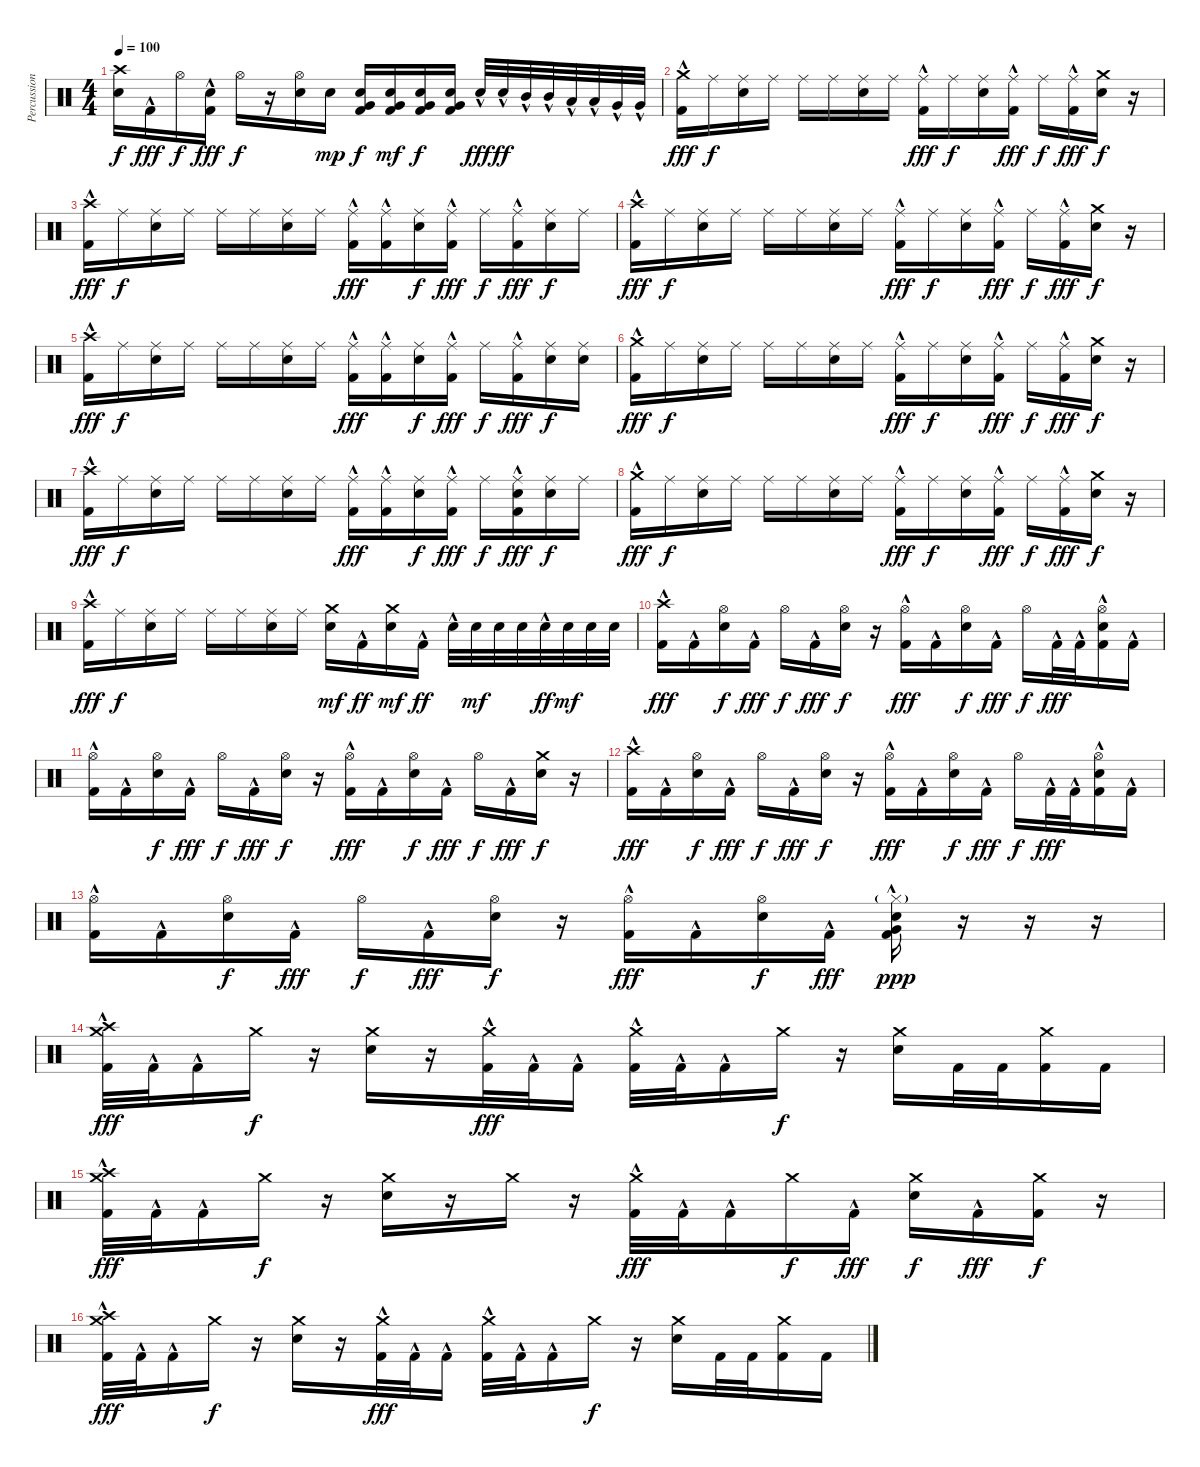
\track ("Percussion" "Percussion") {instrument percussion}
\staff {score}
\articulation defaults
\ts (4 4)
\tempo 100
\clef neutral
\ks c
("Electric Snare (hit)" "Crash high (hit)").16{dy f} "Kick (hit) 2"{hac}.16{dy fff} "Hi-Hat (open)".16{dy f} ("Kick (hit) 2"{hac} "Electric Snare (hit)").16{dy fff} "Hi-Hat (open)".16{dy f} r.16 ("Electric Snare (hit)" "Hi-Hat (open)").16 "Electric Snare (hit)".16{dy mp} ("Kick (hit) 2" "Electric Snare (hit)" "Very Low Tom (hit)").16{dy f} ("Kick (hit) 2" "Electric Snare (hit)" "Very Low Tom (hit)").16{dy mf} ("Kick (hit) 2" "Electric Snare (hit)" "Very Low Tom (hit)").16{dy f} ("Kick (hit) 2" "Electric Snare (hit)" "Very Low Tom (hit)").16 "Electric Snare (hit)"{hac}.32{dy fff} "Electric Snare (hit)"{hac}.32{dy ff} "Mid Tom (hit)"{hac}.32 "Mid Tom (hit)"{hac}.32 "Low Tom (hit)"{hac}.32 "Low Tom (hit)"{hac}.32 "Very Low Tom (hit)"{hac}.32 "Very Low Tom (hit)"{hac}.32 |
("Kick (hit) 2"{hac} "Crash medium (hit)").16{dy fff} "Ride (middle)".16{dy f} ("Electric Snare (hit)" "Ride (middle)").16 "Ride (middle)".16 "Ride (middle)".16 "Ride (middle)".16 ("Electric Snare (hit)" "Ride (middle)").16 "Ride (middle)".16 ("Kick (hit) 2"{hac} "Ride (middle)").16{dy fff} "Ride (middle)".16{dy f} ("Electric Snare (hit)" "Ride (middle)").16 ("Kick (hit) 2"{hac} "Ride (middle)").16{dy fff} "Ride (middle)".16{dy f} ("Kick (hit) 2"{hac} "Ride (middle)").16{dy fff} ("Electric Snare (hit)" "Crash medium (hit)").16{dy f} r.16 |
("Kick (hit) 2"{hac} "Crash high (hit)").16{dy fff} "Ride (middle)".16{dy f} ("Electric Snare (hit)" "Ride (middle)").16 "Ride (middle)".16 "Ride (middle)".16 "Ride (middle)".16 ("Electric Snare (hit)" "Ride (middle)").16 "Ride (middle)".16 ("Kick (hit) 2"{hac} "Ride (middle)").16{dy fff} ("Kick (hit) 2"{hac} "Ride (middle)").16 ("Electric Snare (hit)" "Ride (middle)").16{dy f} ("Kick (hit) 2"{hac} "Ride (middle)").16{dy fff} "Ride (middle)".16{dy f} ("Kick (hit) 2"{hac} "Ride (middle)").16{dy fff} ("Electric Snare (hit)" "Ride (middle)").16{dy f} "Ride (middle)".16 |
("Kick (hit) 2"{hac} "Crash high (hit)").16{dy fff} "Ride (middle)".16{dy f} ("Electric Snare (hit)" "Ride (middle)").16 "Ride (middle)".16 "Ride (middle)".16 "Ride (middle)".16 ("Electric Snare (hit)" "Ride (middle)").16 "Ride (middle)".16 ("Kick (hit) 2"{hac} "Ride (middle)").16{dy fff} "Ride (middle)".16{dy f} ("Electric Snare (hit)" "Ride (middle)").16 ("Kick (hit) 2"{hac} "Ride (middle)").16{dy fff} "Ride (middle)".16{dy f} ("Kick (hit) 2"{hac} "Ride (middle)").16{dy fff} ("Electric Snare (hit)" "Crash medium (hit)").16{dy f} r.16 |
("Kick (hit) 2"{hac} "Crash high (hit)").16{dy fff} "Ride (middle)".16{dy f} ("Electric Snare (hit)" "Ride (middle)").16 "Ride (middle)".16 "Ride (middle)".16 "Ride (middle)".16 ("Electric Snare (hit)" "Ride (middle)").16 "Ride (middle)".16 ("Kick (hit) 2"{hac} "Ride (middle)").16{dy fff} ("Kick (hit) 2"{hac} "Ride (middle)").16 ("Electric Snare (hit)" "Ride (middle)").16{dy f} ("Kick (hit) 2"{hac} "Ride (middle)").16{dy fff} "Ride (middle)".16{dy f} ("Kick (hit) 2"{hac} "Ride (middle)").16{dy fff} ("Electric Snare (hit)" "Ride (middle)").16{dy f} ("Electric Snare (hit)" "Ride (middle)").16 |
("Kick (hit) 2"{hac} "Crash medium (hit)").16{dy fff} "Ride (middle)".16{dy f} ("Electric Snare (hit)" "Ride (middle)").16 "Ride (middle)".16 "Ride (middle)".16 "Ride (middle)".16 ("Electric Snare (hit)" "Ride (middle)").16 "Ride (middle)".16 ("Kick (hit) 2"{hac} "Ride (middle)").16{dy fff} "Ride (middle)".16{dy f} ("Electric Snare (hit)" "Ride (middle)").16 ("Kick (hit) 2"{hac} "Ride (middle)").16{dy fff} "Ride (middle)".16{dy f} ("Kick (hit) 2"{hac} "Ride (middle)").16{dy fff} ("Electric Snare (hit)" "Crash medium (hit)").16{dy f} r.16 |
("Kick (hit) 2"{hac} "Crash high (hit)").16{dy fff} "Ride (middle)".16{dy f} ("Electric Snare (hit)" "Ride (middle)").16 "Ride (middle)".16 "Ride (middle)".16 "Ride (middle)".16 ("Electric Snare (hit)" "Ride (middle)").16 "Ride (middle)".16 ("Kick (hit) 2"{hac} "Ride (middle)").16{dy fff} ("Kick (hit) 2"{hac} "Ride (middle)").16 ("Electric Snare (hit)" "Ride (middle)").16{dy f} ("Kick (hit) 2"{hac} "Ride (middle)").16{dy fff} "Ride (middle)".16{dy f} ("Electric Snare (hit)" "Kick (hit) 2"{hac} "Ride (middle)").16{dy fff} ("Electric Snare (hit)" "Ride (middle)").16{dy f} "Ride (middle)".16 |
("Kick (hit) 2"{hac} "Crash medium (hit)").16{dy fff} "Ride (middle)".16{dy f} ("Electric Snare (hit)" "Ride (middle)").16 "Ride (middle)".16 "Ride (middle)".16 "Ride (middle)".16 ("Electric Snare (hit)" "Ride (middle)").16 "Ride (middle)".16 ("Kick (hit) 2"{hac} "Ride (middle)").16{dy fff} "Ride (middle)".16{dy f} ("Electric Snare (hit)" "Ride (middle)").16 ("Kick (hit) 2"{hac} "Ride (middle)").16{dy fff} "Ride (middle)".16{dy f} ("Kick (hit) 2"{hac} "Ride (middle)").16{dy fff} ("Electric Snare (hit)" "Crash medium (hit)").16{dy f} r.16 |
("Kick (hit) 2"{hac} "Crash high (hit)").16{dy fff} "Ride (middle)".16{dy f} ("Electric Snare (hit)" "Ride (middle)").16 "Ride (middle)".16 "Ride (middle)".16 "Ride (middle)".16 ("Electric Snare (hit)" "Ride (middle)").16 "Ride (middle)".16 ("Electric Snare (hit)" "Crash medium (hit)").16{dy mf} "Kick (hit) 2"{hac}.16{dy ff} ("Electric Snare (hit)" "Crash medium (hit)").16{dy mf} "Kick (hit) 2"{hac}.16{dy ff} "Electric Snare (hit)"{hac}.32 "Electric Snare (hit)".32{dy mf} "Electric Snare (hit)".32 "Electric Snare (hit)".32 "Electric Snare (hit)"{hac}.32{dy ff} "Electric Snare (hit)".32{dy mf} "Electric Snare (hit)".32 "Electric Snare (hit)".32 |
("Kick (hit) 2"{hac} "Crash high (hit)").16{dy fff} "Kick (hit) 2"{hac}.16 ("Electric Snare (hit)" "Hi-Hat (open)").16{dy f} "Kick (hit) 2"{hac}.16{dy fff} "Hi-Hat (open)".16{dy f} "Kick (hit) 2"{hac}.16{dy fff} ("Electric Snare (hit)" "Hi-Hat (open)").16{dy f} r.16 ("Kick (hit) 2"{hac} "Hi-Hat (open)").16{dy fff} "Kick (hit) 2"{hac}.16 ("Electric Snare (hit)" "Hi-Hat (open)").16{dy f} "Kick (hit) 2"{hac}.16{dy fff} "Hi-Hat (open)".16{dy f} "Kick (hit) 2"{hac}.32{dy fff} "Kick (hit) 2"{hac}.32 ("Electric Snare (hit)" "Kick (hit) 2"{hac} "Hi-Hat (open)").16 "Kick (hit) 2"{hac}.16 |
("Kick (hit) 2"{hac} "Hi-Hat (open)").16 "Kick (hit) 2"{hac}.16 ("Electric Snare (hit)" "Hi-Hat (open)").16{dy f} "Kick (hit) 2"{hac}.16{dy fff} "Hi-Hat (open)".16{dy f} "Kick (hit) 2"{hac}.16{dy fff} ("Electric Snare (hit)" "Hi-Hat (open)").16{dy f} r.16 ("Kick (hit) 2"{hac} "Hi-Hat (open)").16{dy fff} "Kick (hit) 2"{hac}.16 ("Electric Snare (hit)" "Hi-Hat (open)").16{dy f} "Kick (hit) 2"{hac}.16{dy fff} "Hi-Hat (open)".16{dy f} "Kick (hit) 2"{hac}.16{dy fff} ("Electric Snare (hit)" "Crash medium (hit)").16{dy f} r.16 |
("Kick (hit) 2"{hac} "Crash high (hit)").16{dy fff} "Kick (hit) 2"{hac}.16 ("Electric Snare (hit)" "Hi-Hat (open)").16{dy f} "Kick (hit) 2"{hac}.16{dy fff} "Hi-Hat (open)".16{dy f} "Kick (hit) 2"{hac}.16{dy fff} ("Electric Snare (hit)" "Hi-Hat (open)").16{dy f} r.16 ("Kick (hit) 2"{hac} "Hi-Hat (open)").16{dy fff} "Kick (hit) 2"{hac}.16 ("Electric Snare (hit)" "Hi-Hat (open)").16{dy f} "Kick (hit) 2"{hac}.16{dy fff} "Hi-Hat (open)".16{dy f} "Kick (hit) 2"{hac}.32{dy fff} "Kick (hit) 2"{hac}.32 ("Electric Snare (hit)" "Kick (hit) 2"{hac} "Hi-Hat (open)").16 "Kick (hit) 2"{hac}.16 |
("Kick (hit) 2"{hac} "Hi-Hat (open)").16 "Kick (hit) 2"{hac}.16 ("Electric Snare (hit)" "Hi-Hat (open)").16{dy f} "Kick (hit) 2"{hac}.16{dy fff} "Hi-Hat (open)".16{dy f} "Kick (hit) 2"{hac}.16{dy fff} ("Electric Snare (hit)" "Hi-Hat (open)").16{dy f} r.16 ("Kick (hit) 2"{hac} "Hi-Hat (open)").16{dy fff} "Kick (hit) 2"{hac}.16 ("Electric Snare (hit)" "Hi-Hat (open)").16{dy f} "Kick (hit) 2"{hac}.16{dy fff} ("Kick (hit) 2"{hac} "Electric Snare (hit)" "Very Low Tom (hit)" "Hi-Hat (closed)"{g}).16{dy ppp} r.16 r.16 r.16 |
("Kick (hit) 2"{hac} "Crash medium (hit)" "Crash high (hit)").32{dy fff} "Kick (hit) 2"{hac}.32 "Kick (hit) 2"{hac}.16 "Crash medium (hit)".16{dy f} r.16 ("Electric Snare (hit)" "Crash medium (hit)").16 r.16 ("Kick (hit) 2"{hac} "Crash medium (hit)").32{dy fff} "Kick (hit) 2"{hac}.32 "Kick (hit) 2"{hac}.16 ("Kick (hit) 2"{hac} "Crash medium (hit)").32 "Kick (hit) 2"{hac}.32 "Kick (hit) 2"{hac}.16 "Crash medium (hit)".16{dy f} r.16 ("Electric Snare (hit)" "Crash medium (hit)").16 "Kick (hit) 2".32 "Kick (hit) 2".32 ("Kick (hit) 2" "Crash medium (hit)").16 "Kick (hit) 2".16 |
("Kick (hit) 2"{hac} "Crash medium (hit)" "Crash high (hit)").32{dy fff} "Kick (hit) 2"{hac}.32 "Kick (hit) 2"{hac}.16 "Crash medium (hit)".16{dy f} r.16 ("Electric Snare (hit)" "Crash medium (hit)").16 r.16 "Crash medium (hit)".16 r.16 ("Kick (hit) 2"{hac} "Crash medium (hit)").32{dy fff} "Kick (hit) 2"{hac}.32 "Kick (hit) 2"{hac}.16 "Crash medium (hit)".16{dy f} "Kick (hit) 2"{hac}.16{dy fff} ("Electric Snare (hit)" "Crash medium (hit)").16{dy f} "Kick (hit) 2"{hac}.16{dy fff} ("Kick (hit) 2" "Crash medium (hit)").16{dy f} r.16 |
("Kick (hit) 2"{hac} "Crash medium (hit)" "Crash high (hit)").32{dy fff} "Kick (hit) 2"{hac}.32 "Kick (hit) 2"{hac}.16 "Crash medium (hit)".16{dy f} r.16 ("Electric Snare (hit)" "Crash medium (hit)").16 r.16 ("Kick (hit) 2"{hac} "Crash medium (hit)").32{dy fff} "Kick (hit) 2"{hac}.32 "Kick (hit) 2"{hac}.16 ("Kick (hit) 2"{hac} "Crash medium (hit)").32 "Kick (hit) 2"{hac}.32 "Kick (hit) 2"{hac}.16 "Crash medium (hit)".16{dy f} r.16 ("Electric Snare (hit)" "Crash medium (hit)").16 "Kick (hit) 2".32 "Kick (hit) 2".32 ("Kick (hit) 2" "Crash medium (hit)").16 "Kick (hit) 2".16
